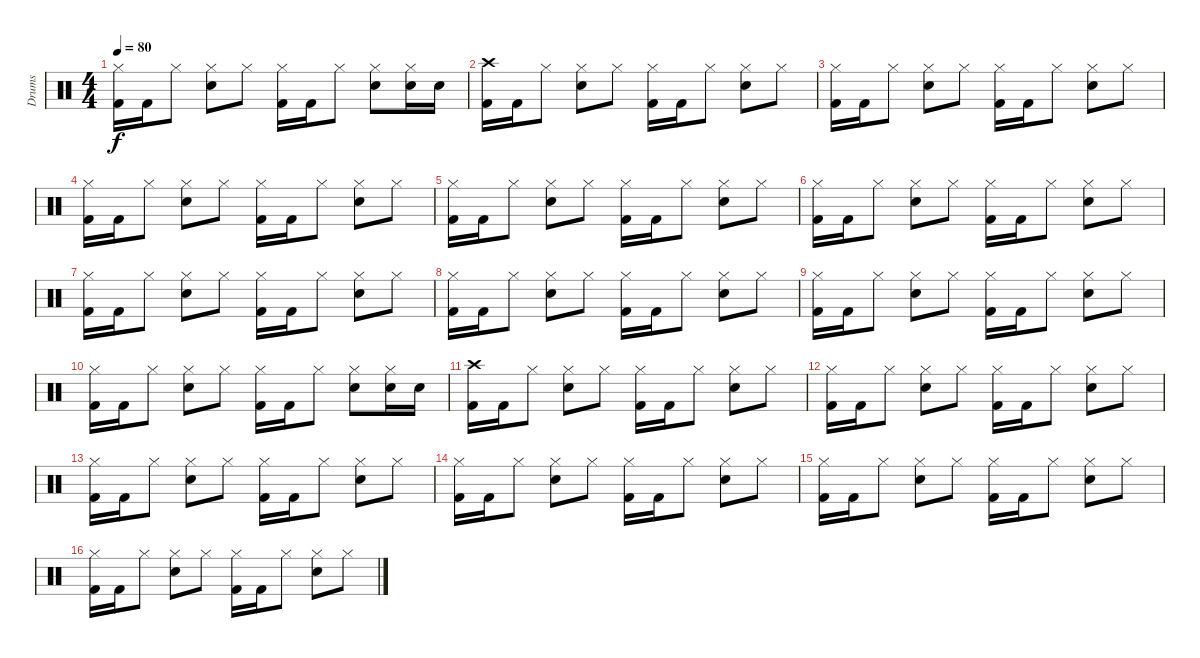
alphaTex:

\track ("Drums         " "Drums     ") {instrument percussion}
\staff {score}
\articulation defaults
\ts (4 4)
\tempo 80
\clef neutral
\ks c
("Kick (hit) 2" "Hi-Hat (closed)").16{dy f} "Kick (hit) 2".16 "Hi-Hat (closed)".8 ("Snare (hit) 2" "Hi-Hat (closed)").8 "Hi-Hat (closed)".8 ("Kick (hit) 2" "Hi-Hat (closed)").16 "Kick (hit) 2".16 "Hi-Hat (closed)".8 ("Snare (hit) 2" "Hi-Hat (closed)").8 ("Snare (hit) 2" "Hi-Hat (closed)").16 "Snare (hit) 2".16 |
("Kick (hit) 2" "Crash high (hit)").16 "Kick (hit) 2".16 "Hi-Hat (closed)".8 ("Snare (hit) 2" "Hi-Hat (closed)").8 "Hi-Hat (closed)".8 ("Kick (hit) 2" "Hi-Hat (closed)").16 "Kick (hit) 2".16 "Hi-Hat (closed)".8 ("Snare (hit) 2" "Hi-Hat (closed)").8 "Hi-Hat (closed)".8 |
("Kick (hit) 2" "Hi-Hat (closed)").16 "Kick (hit) 2".16 "Hi-Hat (closed)".8 ("Snare (hit) 2" "Hi-Hat (closed)").8 "Hi-Hat (closed)".8 ("Kick (hit) 2" "Hi-Hat (closed)").16 "Kick (hit) 2".16 "Hi-Hat (closed)".8 ("Snare (hit) 2" "Hi-Hat (closed)").8 "Hi-Hat (closed)".8 |
("Kick (hit) 2" "Hi-Hat (closed)").16 "Kick (hit) 2".16 "Hi-Hat (closed)".8 ("Snare (hit) 2" "Hi-Hat (closed)").8 "Hi-Hat (closed)".8 ("Kick (hit) 2" "Hi-Hat (closed)").16 "Kick (hit) 2".16 "Hi-Hat (closed)".8 ("Snare (hit) 2" "Hi-Hat (closed)").8 "Hi-Hat (closed)".8 |
("Kick (hit) 2" "Hi-Hat (closed)").16 "Kick (hit) 2".16 "Hi-Hat (closed)".8 ("Snare (hit) 2" "Hi-Hat (closed)").8 "Hi-Hat (closed)".8 ("Kick (hit) 2" "Hi-Hat (closed)").16 "Kick (hit) 2".16 "Hi-Hat (closed)".8 ("Snare (hit) 2" "Hi-Hat (closed)").8 "Hi-Hat (closed)".8 |
("Kick (hit) 2" "Hi-Hat (closed)").16 "Kick (hit) 2".16 "Hi-Hat (closed)".8 ("Snare (hit) 2" "Hi-Hat (closed)").8 "Hi-Hat (closed)".8 ("Kick (hit) 2" "Hi-Hat (closed)").16 "Kick (hit) 2".16 "Hi-Hat (closed)".8 ("Snare (hit) 2" "Hi-Hat (closed)").8 "Hi-Hat (closed)".8 |
("Kick (hit) 2" "Hi-Hat (closed)").16 "Kick (hit) 2".16 "Hi-Hat (closed)".8 ("Snare (hit) 2" "Hi-Hat (closed)").8 "Hi-Hat (closed)".8 ("Kick (hit) 2" "Hi-Hat (closed)").16 "Kick (hit) 2".16 "Hi-Hat (closed)".8 ("Snare (hit) 2" "Hi-Hat (closed)").8 "Hi-Hat (closed)".8 |
("Kick (hit) 2" "Hi-Hat (closed)").16 "Kick (hit) 2".16 "Hi-Hat (closed)".8 ("Snare (hit) 2" "Hi-Hat (closed)").8 "Hi-Hat (closed)".8 ("Kick (hit) 2" "Hi-Hat (closed)").16 "Kick (hit) 2".16 "Hi-Hat (closed)".8 ("Snare (hit) 2" "Hi-Hat (closed)").8 "Hi-Hat (closed)".8 |
("Kick (hit) 2" "Hi-Hat (closed)").16 "Kick (hit) 2".16 "Hi-Hat (closed)".8 ("Snare (hit) 2" "Hi-Hat (closed)").8 "Hi-Hat (closed)".8 ("Kick (hit) 2" "Hi-Hat (closed)").16 "Kick (hit) 2".16 "Hi-Hat (closed)".8 ("Snare (hit) 2" "Hi-Hat (closed)").8 "Hi-Hat (closed)".8 |
("Kick (hit) 2" "Hi-Hat (closed)").16 "Kick (hit) 2".16 "Hi-Hat (closed)".8 ("Snare (hit) 2" "Hi-Hat (closed)").8 "Hi-Hat (closed)".8 ("Kick (hit) 2" "Hi-Hat (closed)").16 "Kick (hit) 2".16 "Hi-Hat (closed)".8 ("Snare (hit) 2" "Hi-Hat (closed)").8 ("Snare (hit) 2" "Hi-Hat (closed)").16 "Snare (hit) 2".16 |
("Kick (hit) 2" "Crash high (hit)").16 "Kick (hit) 2".16 "Hi-Hat (closed)".8 ("Snare (hit) 2" "Hi-Hat (closed)").8 "Hi-Hat (closed)".8 ("Kick (hit) 2" "Hi-Hat (closed)").16 "Kick (hit) 2".16 "Hi-Hat (closed)".8 ("Snare (hit) 2" "Hi-Hat (closed)").8 "Hi-Hat (closed)".8 |
("Kick (hit) 2" "Hi-Hat (closed)").16 "Kick (hit) 2".16 "Hi-Hat (closed)".8 ("Snare (hit) 2" "Hi-Hat (closed)").8 "Hi-Hat (closed)".8 ("Kick (hit) 2" "Hi-Hat (closed)").16 "Kick (hit) 2".16 "Hi-Hat (closed)".8 ("Snare (hit) 2" "Hi-Hat (closed)").8 "Hi-Hat (closed)".8 |
("Kick (hit) 2" "Hi-Hat (closed)").16 "Kick (hit) 2".16 "Hi-Hat (closed)".8 ("Snare (hit) 2" "Hi-Hat (closed)").8 "Hi-Hat (closed)".8 ("Kick (hit) 2" "Hi-Hat (closed)").16 "Kick (hit) 2".16 "Hi-Hat (closed)".8 ("Snare (hit) 2" "Hi-Hat (closed)").8 "Hi-Hat (closed)".8 |
("Kick (hit) 2" "Hi-Hat (closed)").16 "Kick (hit) 2".16 "Hi-Hat (closed)".8 ("Snare (hit) 2" "Hi-Hat (closed)").8 "Hi-Hat (closed)".8 ("Kick (hit) 2" "Hi-Hat (closed)").16 "Kick (hit) 2".16 "Hi-Hat (closed)".8 ("Snare (hit) 2" "Hi-Hat (closed)").8 "Hi-Hat (closed)".8 |
("Kick (hit) 2" "Hi-Hat (closed)").16 "Kick (hit) 2".16 "Hi-Hat (closed)".8 ("Snare (hit) 2" "Hi-Hat (closed)").8 "Hi-Hat (closed)".8 ("Kick (hit) 2" "Hi-Hat (closed)").16 "Kick (hit) 2".16 "Hi-Hat (closed)".8 ("Snare (hit) 2" "Hi-Hat (closed)").8 "Hi-Hat (closed)".8 |
("Kick (hit) 2" "Hi-Hat (closed)").16 "Kick (hit) 2".16 "Hi-Hat (closed)".8 ("Snare (hit) 2" "Hi-Hat (closed)").8 "Hi-Hat (closed)".8 ("Kick (hit) 2" "Hi-Hat (closed)").16 "Kick (hit) 2".16 "Hi-Hat (closed)".8 ("Snare (hit) 2" "Hi-Hat (closed)").8 "Hi-Hat (closed)".8
